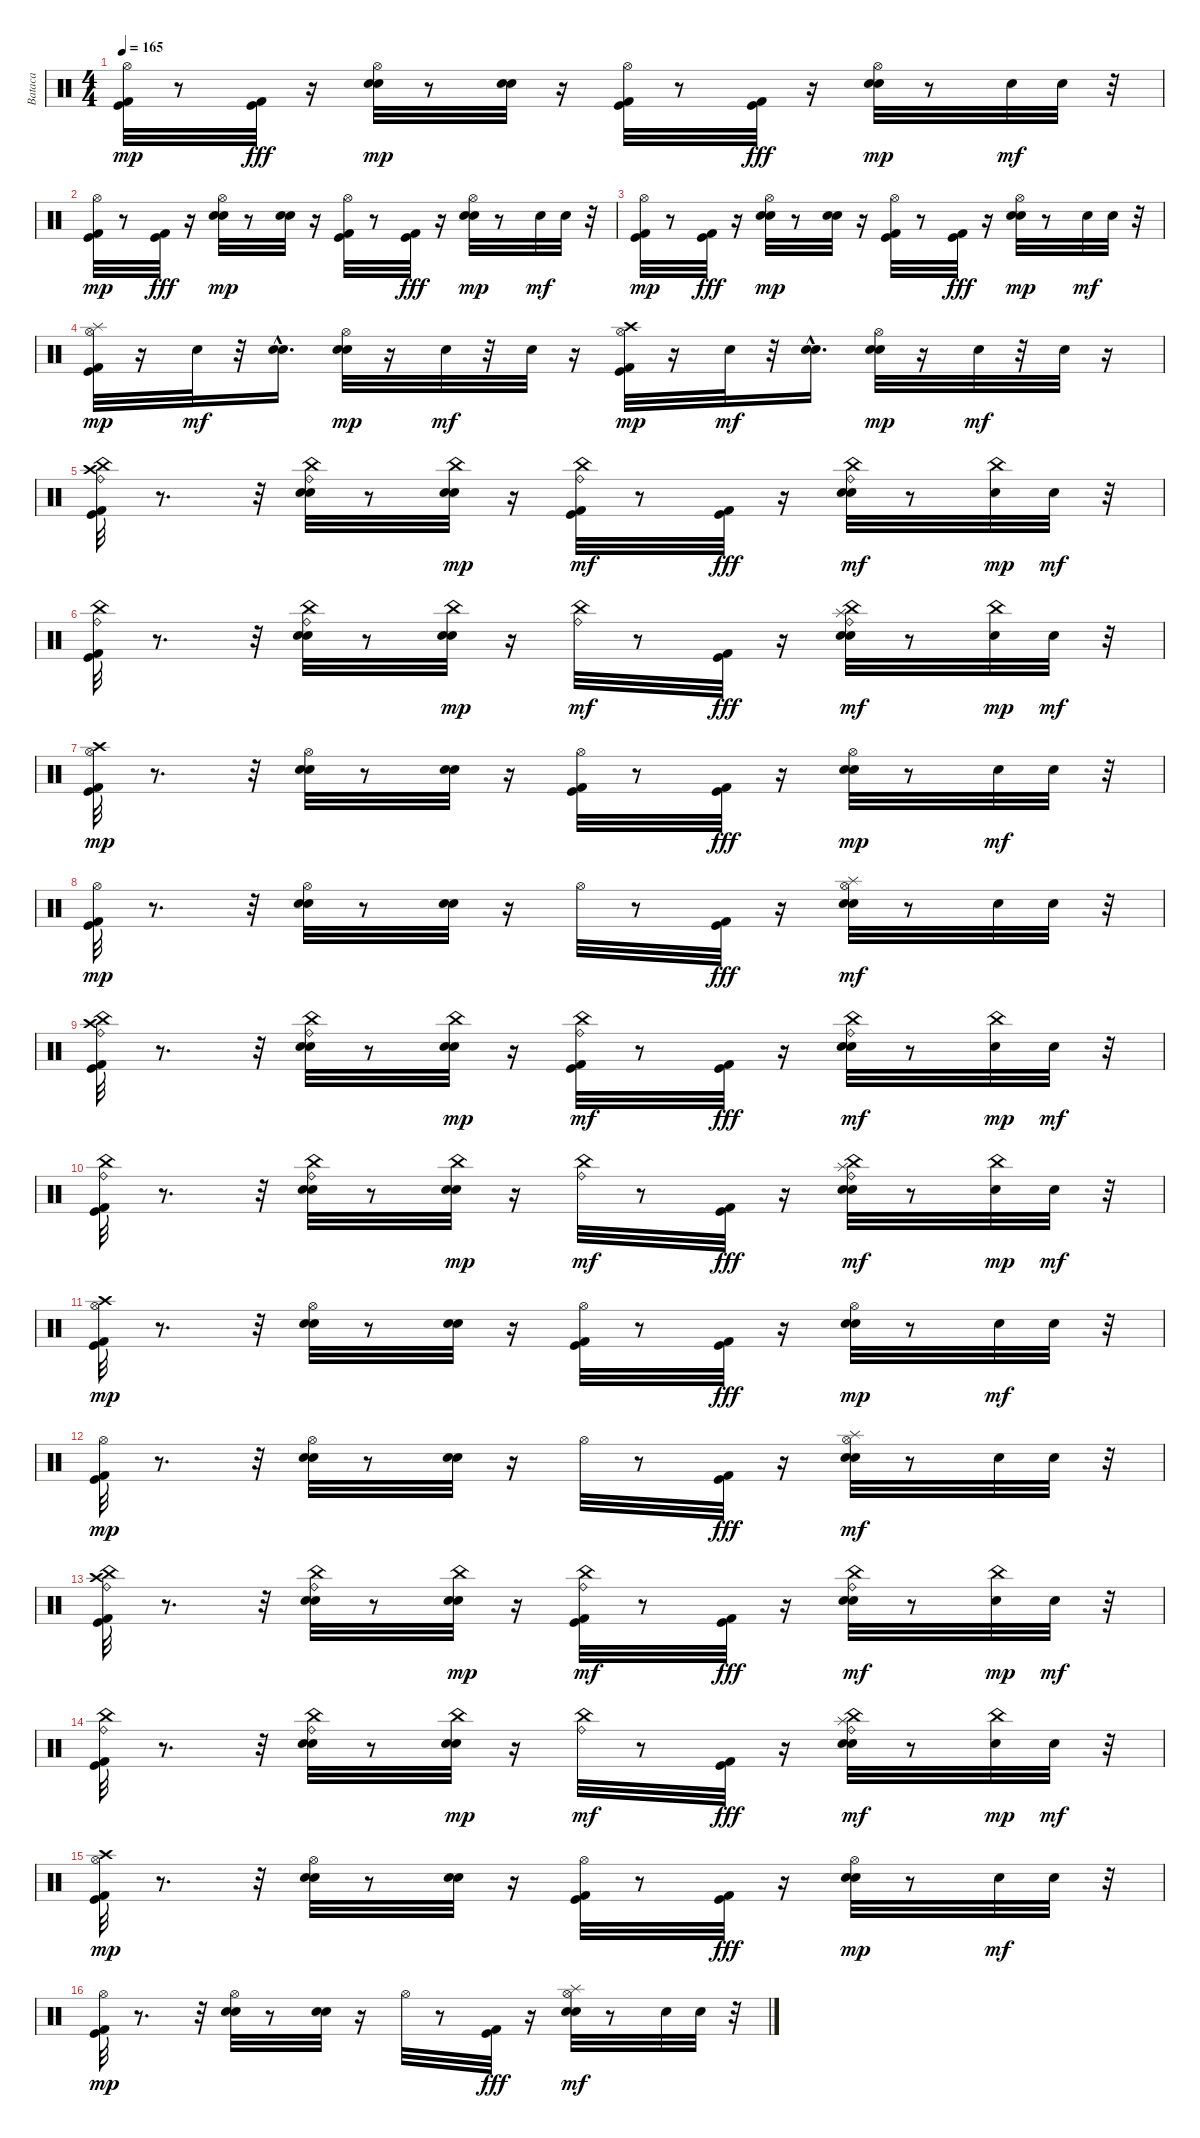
\track ("Bataca" "Bataca") {instrument percussion}
\staff {score}
\articulation defaults
\ts (4 4)
\tempo 165
\clef neutral
\ks c
("Kick (hit) 2" "Kick (hit)" "Hi-Hat (open)").32{dy mp} r.8 ("Kick (hit) 2" "Kick (hit)").32{dy fff} r.16 ("Snare (hit) 2" "Hand Clap (hit)" "Hi-Hat (open)").32{dy mp} r.8 ("Snare (hit) 2" "Hand Clap (hit)").32 r.16 ("Kick (hit) 2" "Kick (hit)" "Hi-Hat (open)").32 r.8 ("Kick (hit) 2" "Kick (hit)").32{dy fff} r.16 ("Snare (hit) 2" "Hand Clap (hit)" "Hi-Hat (open)").32{dy mp} r.8 "Snare (hit) 2".32{dy mf} "Hand Clap (hit)".32 r.32 |
("Kick (hit) 2" "Kick (hit)" "Hi-Hat (open)").32{dy mp} r.8 ("Kick (hit) 2" "Kick (hit)").32{dy fff} r.16 ("Snare (hit) 2" "Hand Clap (hit)" "Hi-Hat (open)").32{dy mp} r.8 ("Snare (hit) 2" "Hand Clap (hit)").32 r.16 ("Kick (hit) 2" "Kick (hit)" "Hi-Hat (open)").32 r.8 ("Kick (hit) 2" "Kick (hit)").32{dy fff} r.16 ("Snare (hit) 2" "Hand Clap (hit)" "Hi-Hat (open)").32{dy mp} r.8 "Snare (hit) 2".32{dy mf} "Hand Clap (hit)".32 r.32 |
("Kick (hit) 2" "Kick (hit)" "Hi-Hat (open)").32{dy mp} r.8 ("Kick (hit) 2" "Kick (hit)").32{dy fff} r.16 ("Snare (hit) 2" "Hand Clap (hit)" "Hi-Hat (open)").32{dy mp} r.8 ("Snare (hit) 2" "Hand Clap (hit)").32 r.16 ("Kick (hit) 2" "Kick (hit)" "Hi-Hat (open)").32 r.8 ("Kick (hit) 2" "Kick (hit)").32{dy fff} r.16 ("Snare (hit) 2" "Hand Clap (hit)" "Hi-Hat (open)").32{dy mp} r.8 "Snare (hit) 2".32{dy mf} "Hand Clap (hit)".32 r.32 |
("Kick (hit) 2" "Kick (hit)" "Splash (hit)" "Hi-Hat (open)").32{dy mp} r.16 "Snare (hit) 2".32{dy mf} r.32 ("Snare (hit) 2"{hac} "Snare (hit) 2").16{d} ("Snare (hit) 2" "Hand Clap (hit)" "Hi-Hat (open)").32{dy mp} r.16 "Snare (hit) 2".32{dy mf} r.32 "Snare (hit) 2".32 r.16 ("Kick (hit) 2" "Kick (hit)" "Crash high (hit)" "Hi-Hat (open)").32{dy mp} r.16 "Snare (hit) 2".32{dy mf} r.32 ("Snare (hit) 2"{hac} "Snare (hit) 2").16{d} ("Hand Clap (hit)" "Snare (hit) 2" "Hi-Hat (open)").32{dy mp} r.16 "Snare (hit) 2".32{dy mf} r.32 "Snare (hit) 2".32 r.16 |
("Kick (hit) 2" "Kick (hit)" "China (hit)" "Ride (bell)" "Crash high (hit)").32 r.8{d} r.32 ("Snare (hit) 2" "Hand Clap (hit)" "China (hit)" "Ride (bell)").32 r.8 ("Snare (hit) 2" "Hand Clap (hit)" "China (hit)").32{dy mp} r.16 ("Kick (hit) 2" "Kick (hit)" "China (hit)" "Ride (bell)").32{dy mf} r.8 ("Kick (hit) 2" "Kick (hit)").32{dy fff} r.16 ("Snare (hit) 2" "Hand Clap (hit)" "China (hit)" "Ride (bell)").32{dy mf} r.8 ("Snare (hit) 2" "China (hit)").32{dy mp} "Hand Clap (hit)".32{dy mf} r.32 |
("Kick (hit) 2" "Kick (hit)" "China (hit)" "Ride (bell)").32 r.8{d} r.32 ("Snare (hit) 2" "Hand Clap (hit)" "China (hit)" "Ride (bell)").32 r.8 ("Snare (hit) 2" "Hand Clap (hit)" "China (hit)").32{dy mp} r.16 ("China (hit)" "Ride (bell)").32{dy mf} r.8 ("Kick (hit) 2" "Kick (hit)").32{dy fff} r.16 ("Snare (hit) 2" "Hand Clap (hit)" "China (hit)" "Ride (bell)" "Splash (hit)").32{dy mf} r.8 ("Snare (hit) 2" "China (hit)").32{dy mp} "Hand Clap (hit)".32{dy mf} r.32 |
("Kick (hit) 2" "Kick (hit)" "Crash high (hit)" "Hi-Hat (open)").32{dy mp} r.8{d} r.32 ("Snare (hit) 2" "Hand Clap (hit)" "Hi-Hat (open)").32 r.8 ("Snare (hit) 2" "Hand Clap (hit)").32 r.16 ("Kick (hit) 2" "Kick (hit)" "Hi-Hat (open)").32 r.8 ("Kick (hit) 2" "Kick (hit)").32{dy fff} r.16 ("Snare (hit) 2" "Hand Clap (hit)" "Hi-Hat (open)").32{dy mp} r.8 "Snare (hit) 2".32{dy mf} "Hand Clap (hit)".32 r.32 |
("Kick (hit) 2" "Kick (hit)" "Hi-Hat (open)").32{dy mp} r.8{d} r.32 ("Snare (hit) 2" "Hand Clap (hit)" "Hi-Hat (open)").32 r.8 ("Snare (hit) 2" "Hand Clap (hit)").32 r.16 "Hi-Hat (open)".32 r.8 ("Kick (hit) 2" "Kick (hit)").32{dy fff} r.16 ("Snare (hit) 2" "Hand Clap (hit)" "Hi-Hat (open)" "Splash (hit)").32{dy mf} r.8 "Snare (hit) 2".32 "Hand Clap (hit)".32 r.32 |
("Kick (hit) 2" "Kick (hit)" "China (hit)" "Ride (bell)" "Crash high (hit)").32 r.8{d} r.32 ("Snare (hit) 2" "Hand Clap (hit)" "China (hit)" "Ride (bell)").32 r.8 ("Snare (hit) 2" "Hand Clap (hit)" "China (hit)").32{dy mp} r.16 ("Kick (hit) 2" "Kick (hit)" "China (hit)" "Ride (bell)").32{dy mf} r.8 ("Kick (hit) 2" "Kick (hit)").32{dy fff} r.16 ("Snare (hit) 2" "Hand Clap (hit)" "China (hit)" "Ride (bell)").32{dy mf} r.8 ("Snare (hit) 2" "China (hit)").32{dy mp} "Hand Clap (hit)".32{dy mf} r.32 |
("Kick (hit) 2" "Kick (hit)" "China (hit)" "Ride (bell)").32 r.8{d} r.32 ("Snare (hit) 2" "Hand Clap (hit)" "China (hit)" "Ride (bell)").32 r.8 ("Snare (hit) 2" "Hand Clap (hit)" "China (hit)").32{dy mp} r.16 ("China (hit)" "Ride (bell)").32{dy mf} r.8 ("Kick (hit) 2" "Kick (hit)").32{dy fff} r.16 ("Snare (hit) 2" "Hand Clap (hit)" "China (hit)" "Ride (bell)" "Splash (hit)").32{dy mf} r.8 ("Snare (hit) 2" "China (hit)").32{dy mp} "Hand Clap (hit)".32{dy mf} r.32 |
("Kick (hit) 2" "Kick (hit)" "Crash high (hit)" "Hi-Hat (open)").32{dy mp} r.8{d} r.32 ("Snare (hit) 2" "Hand Clap (hit)" "Hi-Hat (open)").32 r.8 ("Snare (hit) 2" "Hand Clap (hit)").32 r.16 ("Kick (hit) 2" "Kick (hit)" "Hi-Hat (open)").32 r.8 ("Kick (hit) 2" "Kick (hit)").32{dy fff} r.16 ("Snare (hit) 2" "Hand Clap (hit)" "Hi-Hat (open)").32{dy mp} r.8 "Snare (hit) 2".32{dy mf} "Hand Clap (hit)".32 r.32 |
("Kick (hit) 2" "Kick (hit)" "Hi-Hat (open)").32{dy mp} r.8{d} r.32 ("Snare (hit) 2" "Hand Clap (hit)" "Hi-Hat (open)").32 r.8 ("Snare (hit) 2" "Hand Clap (hit)").32 r.16 "Hi-Hat (open)".32 r.8 ("Kick (hit) 2" "Kick (hit)").32{dy fff} r.16 ("Snare (hit) 2" "Hand Clap (hit)" "Hi-Hat (open)" "Splash (hit)").32{dy mf} r.8 "Snare (hit) 2".32 "Hand Clap (hit)".32 r.32 |
("Kick (hit) 2" "Kick (hit)" "China (hit)" "Ride (bell)" "Crash high (hit)").32 r.8{d} r.32 ("Snare (hit) 2" "Hand Clap (hit)" "China (hit)" "Ride (bell)").32 r.8 ("Snare (hit) 2" "Hand Clap (hit)" "China (hit)").32{dy mp} r.16 ("Kick (hit) 2" "Kick (hit)" "China (hit)" "Ride (bell)").32{dy mf} r.8 ("Kick (hit) 2" "Kick (hit)").32{dy fff} r.16 ("Snare (hit) 2" "Hand Clap (hit)" "China (hit)" "Ride (bell)").32{dy mf} r.8 ("Snare (hit) 2" "China (hit)").32{dy mp} "Hand Clap (hit)".32{dy mf} r.32 |
("Kick (hit) 2" "Kick (hit)" "China (hit)" "Ride (bell)").32 r.8{d} r.32 ("Snare (hit) 2" "Hand Clap (hit)" "China (hit)" "Ride (bell)").32 r.8 ("Snare (hit) 2" "Hand Clap (hit)" "China (hit)").32{dy mp} r.16 ("China (hit)" "Ride (bell)").32{dy mf} r.8 ("Kick (hit) 2" "Kick (hit)").32{dy fff} r.16 ("Snare (hit) 2" "Hand Clap (hit)" "China (hit)" "Ride (bell)" "Splash (hit)").32{dy mf} r.8 ("Snare (hit) 2" "China (hit)").32{dy mp} "Hand Clap (hit)".32{dy mf} r.32 |
("Kick (hit) 2" "Kick (hit)" "Crash high (hit)" "Hi-Hat (open)").32{dy mp} r.8{d} r.32 ("Snare (hit) 2" "Hand Clap (hit)" "Hi-Hat (open)").32 r.8 ("Snare (hit) 2" "Hand Clap (hit)").32 r.16 ("Kick (hit) 2" "Kick (hit)" "Hi-Hat (open)").32 r.8 ("Kick (hit) 2" "Kick (hit)").32{dy fff} r.16 ("Snare (hit) 2" "Hand Clap (hit)" "Hi-Hat (open)").32{dy mp} r.8 "Snare (hit) 2".32{dy mf} "Hand Clap (hit)".32 r.32 |
("Kick (hit) 2" "Kick (hit)" "Hi-Hat (open)").32{dy mp} r.8{d} r.32 ("Snare (hit) 2" "Hand Clap (hit)" "Hi-Hat (open)").32 r.8 ("Snare (hit) 2" "Hand Clap (hit)").32 r.16 "Hi-Hat (open)".32 r.8 ("Kick (hit) 2" "Kick (hit)").32{dy fff} r.16 ("Snare (hit) 2" "Hand Clap (hit)" "Hi-Hat (open)" "Splash (hit)").32{dy mf} r.8 "Snare (hit) 2".32 "Hand Clap (hit)".32 r.32
